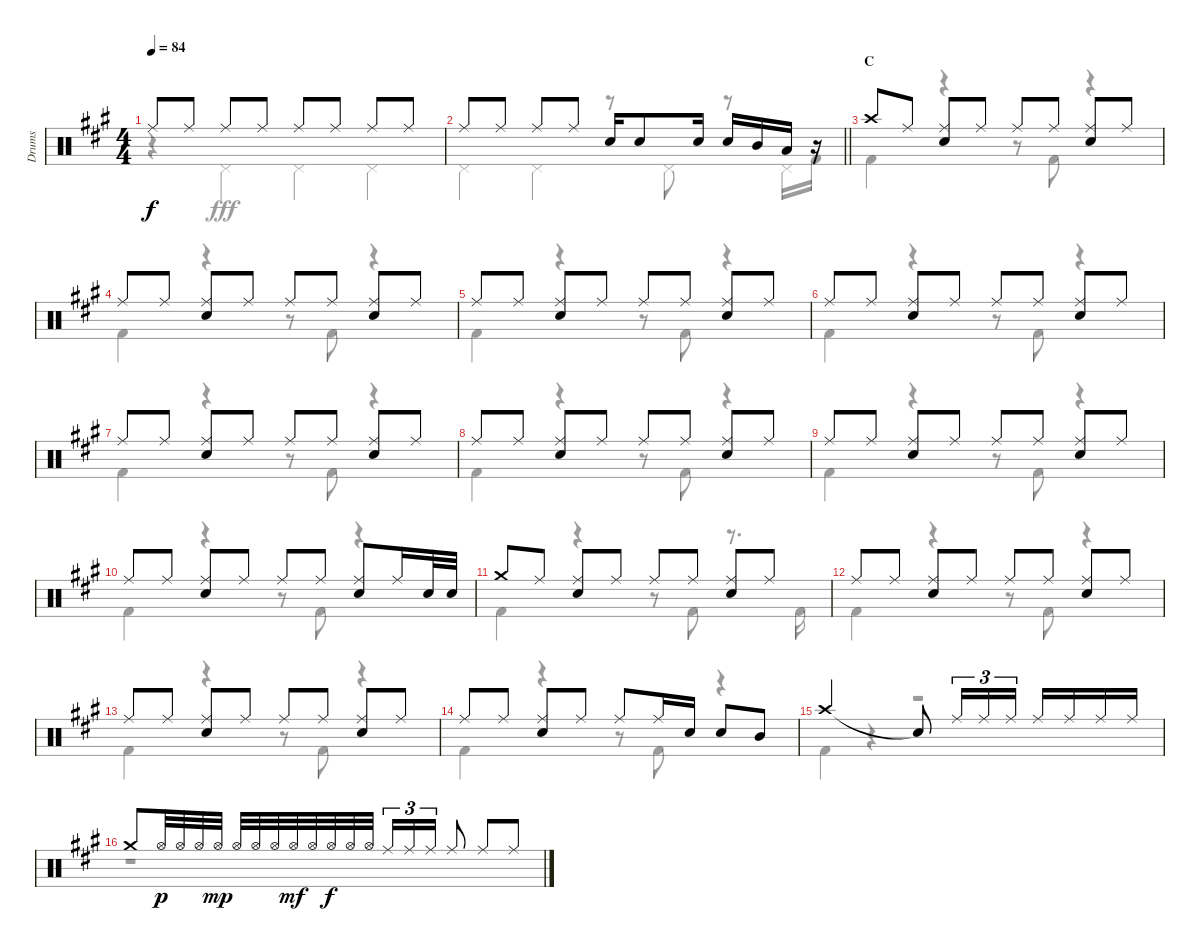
\track ("Drums" "Drums") {instrument percussion}
\staff {score}
\articulation defaults
\voice
\ts (4 4)
\tempo 84
\clef neutral
\ks a "Ride (middle)".8{dy f} "Ride (middle)".8 "Ride (middle)".8 "Ride (middle)".8 "Ride (middle)".8 "Ride (middle)".8 "Ride (middle)".8 "Ride (middle)".8
|
\barLineRight lightlight "Ride (middle)".8 "Ride (middle)".8 "Ride (middle)".8 "Ride (middle)".8 "Snare (hit) 2".16 "Snare (hit) 2".8 "Snare (hit) 2".16 "Snare (hit) 2".16 "Mid Tom (hit)".16 "Low Tom (hit)".16
r.16 |
\section ("" "C")
"Crash high (hit)".8 "Ride (middle)".8 ("Ride (middle)" "Snare (hit) 2").8 "Ride (middle)".8 "Ride (middle)".8 "Ride (middle)".8 ("Ride (middle)" "Snare (hit) 2").8 "Ride (middle)".8 |
"Ride (middle)".8 "Ride (middle)".8 ("Ride (middle)" "Snare (hit) 2").8 "Ride (middle)".8 "Ride (middle)".8 "Ride (middle)".8 ("Ride (middle)" "Snare (hit) 2").8 "Ride (middle)".8 |
"Ride (middle)".8 "Ride (middle)".8 ("Ride (middle)" "Snare (hit) 2").8 "Ride (middle)".8 "Ride (middle)".8 "Ride (middle)".8 ("Ride (middle)" "Snare (hit) 2").8 "Ride (middle)".8 |
"Ride (middle)".8 "Ride (middle)".8 ("Ride (middle)" "Snare (hit) 2").8 "Ride (middle)".8 "Ride (middle)".8 "Ride (middle)".8 ("Ride (middle)" "Snare (hit) 2").8 "Ride (middle)".8 |
"Ride (middle)".8 "Ride (middle)".8 ("Ride (middle)" "Snare (hit) 2").8 "Ride (middle)".8 "Ride (middle)".8 "Ride (middle)".8 ("Ride (middle)" "Snare (hit) 2").8 "Ride (middle)".8 |
"Ride (middle)".8 "Ride (middle)".8 ("Ride (middle)" "Snare (hit) 2").8 "Ride (middle)".8 "Ride (middle)".8 "Ride (middle)".8 ("Ride (middle)" "Snare (hit) 2").8 "Ride (middle)".8 |
"Ride (middle)".8 "Ride (middle)".8 ("Ride (middle)" "Snare (hit) 2").8 "Ride (middle)".8 "Ride (middle)".8 "Ride (middle)".8 ("Ride (middle)" "Snare (hit) 2").8 "Ride (middle)".8 |
"Ride (middle)".8 "Ride (middle)".8 ("Ride (middle)" "Snare (hit) 2").8 "Ride (middle)".8 "Ride (middle)".8 "Ride (middle)".8 ("Ride (middle)" "Snare (hit) 2").8 "Ride (middle)".16 "Snare (hit) 2".32 "Snare (hit) 2".32 |
"Crash medium (hit)".8 "Ride (middle)".8 ("Ride (middle)" "Snare (hit) 2").8 "Ride (middle)".8 "Ride (middle)".8 "Ride (middle)".8 ("Ride (middle)" "Snare (hit) 2").8 "Ride (middle)".8 |
"Ride (middle)".8 "Ride (middle)".8 ("Ride (middle)" "Snare (hit) 2").8 "Ride (middle)".8 "Ride (middle)".8 "Ride (middle)".8 ("Ride (middle)" "Snare (hit) 2").8 "Ride (middle)".8 |
"Ride (middle)".8 "Ride (middle)".8 ("Ride (middle)" "Snare (hit) 2").8 "Ride (middle)".8 "Ride (middle)".8 "Ride (middle)".8 ("Ride (middle)" "Snare (hit) 2").8 "Ride (middle)".8 |
"Ride (middle)".8 "Ride (middle)".8 ("Ride (middle)" "Snare (hit) 2").8 "Ride (middle)".8 "Ride (middle)".8 "Ride (middle)".16 "Snare (hit) 2".16 "Snare (hit) 2".8 "Mid Tom (hit)".8 |
"Crash high (hit)".2 "Snare (hit)"{t}.8 "Ride (middle)".16{tu (3 2)} "Ride (middle)".16{tu (3 2)} "Ride (middle)".16{tu (3 2)} "Ride (middle)".16 "Ride (middle)".16 "Ride (middle)".16 "Ride (middle)".16 |
"Crash medium (hit)".8 "Hi-Hat (open)".32{dy p} "Hi-Hat (open)".32 "Hi-Hat (open)".32 "Hi-Hat (open)".32{dy mp} "Hi-Hat (open)".32 "Hi-Hat (open)".32 "Hi-Hat (open)".32 "Hi-Hat (open)".32{dy mf} "Hi-Hat (open)".32 "Hi-Hat (open)".32{dy f} "Hi-Hat (open)".32 "Hi-Hat (open)".32 "Ride (middle)".16{tu (3 2)} "Ride (middle)".16{tu (3 2)} "Ride (middle)".16{tu (3 2)} "Ride (middle)".8 "Ride (middle)".8 "Ride (middle)".8
\voice
\clef neutral
\ottava regular
\simile none
\ks a
r.4{dy fff} "Pedal Hi-Hat (hit)".4 "Pedal Hi-Hat (hit)".4 "Pedal Hi-Hat (hit)".4 |
\barLineRight lightlight "Pedal Hi-Hat (hit)".4 "Pedal Hi-Hat (hit)".4
r.8 "Pedal Hi-Hat (hit)".8 r.8 "Pedal Hi-Hat (hit)".16 "Kick (hit) 2".16 |
"Kick (hit) 2".4 r.4 r.8 "Kick (hit) 2".8 r.4 |
"Kick (hit) 2".4 r.4 r.8 "Kick (hit) 2".8 r.4 |
"Kick (hit) 2".4 r.4 r.8 "Kick (hit) 2".8 r.4 |
"Kick (hit) 2".4 r.4 r.8 "Kick (hit) 2".8 r.4 |
"Kick (hit) 2".4 r.4 r.8 "Kick (hit) 2".8 r.4 |
"Kick (hit) 2".4 r.4 r.8 "Kick (hit) 2".8 r.4 |
"Kick (hit) 2".4 r.4 r.8 "Kick (hit) 2".8 r.4 |
"Kick (hit) 2".4 r.4 r.8 "Kick (hit) 2".8 r.4 |
"Kick (hit) 2".4 r.4 r.8 "Kick (hit) 2".8 r.8{d} "Kick (hit) 2".16 |
"Kick (hit) 2".4 r.4 r.8 "Kick (hit) 2".8 r.4 |
"Kick (hit) 2".4 r.4 r.8 "Kick (hit) 2".8 r.4 |
"Kick (hit) 2".4 r.4 r.8 "Kick (hit) 2".8 r.4 |
"Kick (hit) 2".4 r.4 r.2 |
r.1
